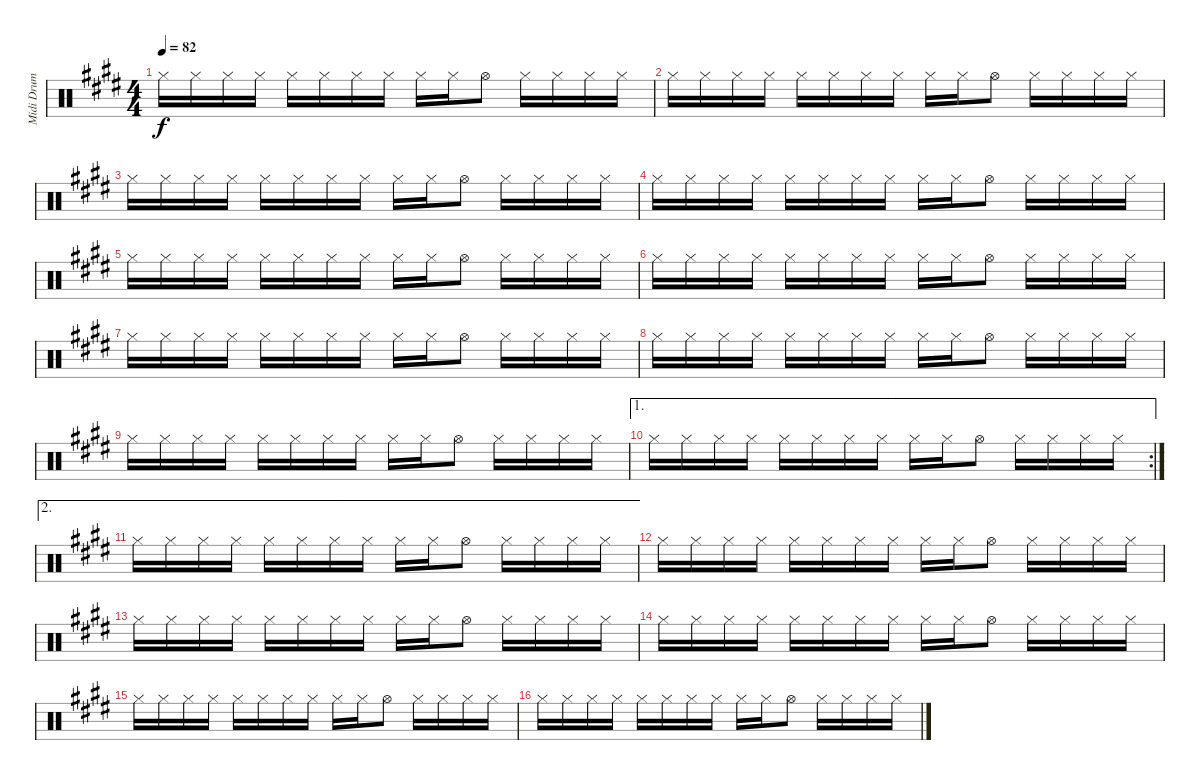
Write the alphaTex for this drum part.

\track ("Midi Drum" "Midi Drum") {instrument percussion}
\staff {score}
\articulation defaults
\ts (4 4)
\tempo 82
\clef neutral
\ks e "Hi-Hat (closed)".16{dy f} "Hi-Hat (closed)".16 "Hi-Hat (closed)".16 "Hi-Hat (closed)".16 "Hi-Hat (closed)".16 "Hi-Hat (closed)".16 "Hi-Hat (closed)".16 "Hi-Hat (closed)".16 "Hi-Hat (closed)".16 "Hi-Hat (closed)".16 "Hi-Hat (open)".8 "Hi-Hat (closed)".16 "Hi-Hat (closed)".16 "Hi-Hat (closed)".16 "Hi-Hat (closed)".16
|
"Hi-Hat (closed)".16 "Hi-Hat (closed)".16 "Hi-Hat (closed)".16 "Hi-Hat (closed)".16 "Hi-Hat (closed)".16 "Hi-Hat (closed)".16 "Hi-Hat (closed)".16 "Hi-Hat (closed)".16 "Hi-Hat (closed)".16 "Hi-Hat (closed)".16 "Hi-Hat (open)".8 "Hi-Hat (closed)".16 "Hi-Hat (closed)".16 "Hi-Hat (closed)".16 "Hi-Hat (closed)".16 |
"Hi-Hat (closed)".16 "Hi-Hat (closed)".16 "Hi-Hat (closed)".16 "Hi-Hat (closed)".16 "Hi-Hat (closed)".16 "Hi-Hat (closed)".16 "Hi-Hat (closed)".16 "Hi-Hat (closed)".16 "Hi-Hat (closed)".16 "Hi-Hat (closed)".16 "Hi-Hat (open)".8 "Hi-Hat (closed)".16 "Hi-Hat (closed)".16 "Hi-Hat (closed)".16 "Hi-Hat (closed)".16 |
"Hi-Hat (closed)".16 "Hi-Hat (closed)".16 "Hi-Hat (closed)".16 "Hi-Hat (closed)".16 "Hi-Hat (closed)".16 "Hi-Hat (closed)".16 "Hi-Hat (closed)".16 "Hi-Hat (closed)".16 "Hi-Hat (closed)".16 "Hi-Hat (closed)".16 "Hi-Hat (open)".8 "Hi-Hat (closed)".16 "Hi-Hat (closed)".16 "Hi-Hat (closed)".16 "Hi-Hat (closed)".16 |
"Hi-Hat (closed)".16 "Hi-Hat (closed)".16 "Hi-Hat (closed)".16 "Hi-Hat (closed)".16 "Hi-Hat (closed)".16 "Hi-Hat (closed)".16 "Hi-Hat (closed)".16 "Hi-Hat (closed)".16 "Hi-Hat (closed)".16 "Hi-Hat (closed)".16 "Hi-Hat (open)".8 "Hi-Hat (closed)".16 "Hi-Hat (closed)".16 "Hi-Hat (closed)".16 "Hi-Hat (closed)".16 |
"Hi-Hat (closed)".16 "Hi-Hat (closed)".16 "Hi-Hat (closed)".16 "Hi-Hat (closed)".16 "Hi-Hat (closed)".16 "Hi-Hat (closed)".16 "Hi-Hat (closed)".16 "Hi-Hat (closed)".16 "Hi-Hat (closed)".16 "Hi-Hat (closed)".16 "Hi-Hat (open)".8 "Hi-Hat (closed)".16 "Hi-Hat (closed)".16 "Hi-Hat (closed)".16 "Hi-Hat (closed)".16 |
"Hi-Hat (closed)".16 "Hi-Hat (closed)".16 "Hi-Hat (closed)".16 "Hi-Hat (closed)".16 "Hi-Hat (closed)".16 "Hi-Hat (closed)".16 "Hi-Hat (closed)".16 "Hi-Hat (closed)".16 "Hi-Hat (closed)".16 "Hi-Hat (closed)".16 "Hi-Hat (open)".8 "Hi-Hat (closed)".16 "Hi-Hat (closed)".16 "Hi-Hat (closed)".16 "Hi-Hat (closed)".16 |
"Hi-Hat (closed)".16 "Hi-Hat (closed)".16 "Hi-Hat (closed)".16 "Hi-Hat (closed)".16 "Hi-Hat (closed)".16 "Hi-Hat (closed)".16 "Hi-Hat (closed)".16 "Hi-Hat (closed)".16 "Hi-Hat (closed)".16 "Hi-Hat (closed)".16 "Hi-Hat (open)".8 "Hi-Hat (closed)".16 "Hi-Hat (closed)".16 "Hi-Hat (closed)".16 "Hi-Hat (closed)".16 |
"Hi-Hat (closed)".16 "Hi-Hat (closed)".16 "Hi-Hat (closed)".16 "Hi-Hat (closed)".16 "Hi-Hat (closed)".16 "Hi-Hat (closed)".16 "Hi-Hat (closed)".16 "Hi-Hat (closed)".16 "Hi-Hat (closed)".16 "Hi-Hat (closed)".16 "Hi-Hat (open)".8 "Hi-Hat (closed)".16 "Hi-Hat (closed)".16 "Hi-Hat (closed)".16 "Hi-Hat (closed)".16 |
\ae 1
\rc 2 "Hi-Hat (closed)".16 "Hi-Hat (closed)".16 "Hi-Hat (closed)".16 "Hi-Hat (closed)".16 "Hi-Hat (closed)".16 "Hi-Hat (closed)".16 "Hi-Hat (closed)".16 "Hi-Hat (closed)".16 "Hi-Hat (closed)".16 "Hi-Hat (closed)".16 "Hi-Hat (open)".8 "Hi-Hat (closed)".16 "Hi-Hat (closed)".16 "Hi-Hat (closed)".16 "Hi-Hat (closed)".16
|
\ae 2 "Hi-Hat (closed)".16 "Hi-Hat (closed)".16 "Hi-Hat (closed)".16 "Hi-Hat (closed)".16 "Hi-Hat (closed)".16 "Hi-Hat (closed)".16 "Hi-Hat (closed)".16 "Hi-Hat (closed)".16 "Hi-Hat (closed)".16 "Hi-Hat (closed)".16 "Hi-Hat (open)".8 "Hi-Hat (closed)".16 "Hi-Hat (closed)".16 "Hi-Hat (closed)".16 "Hi-Hat (closed)".16
|
"Hi-Hat (closed)".16 "Hi-Hat (closed)".16 "Hi-Hat (closed)".16 "Hi-Hat (closed)".16 "Hi-Hat (closed)".16 "Hi-Hat (closed)".16 "Hi-Hat (closed)".16 "Hi-Hat (closed)".16 "Hi-Hat (closed)".16 "Hi-Hat (closed)".16 "Hi-Hat (open)".8 "Hi-Hat (closed)".16 "Hi-Hat (closed)".16 "Hi-Hat (closed)".16 "Hi-Hat (closed)".16 |
"Hi-Hat (closed)".16 "Hi-Hat (closed)".16 "Hi-Hat (closed)".16 "Hi-Hat (closed)".16 "Hi-Hat (closed)".16 "Hi-Hat (closed)".16 "Hi-Hat (closed)".16 "Hi-Hat (closed)".16 "Hi-Hat (closed)".16 "Hi-Hat (closed)".16 "Hi-Hat (open)".8 "Hi-Hat (closed)".16 "Hi-Hat (closed)".16 "Hi-Hat (closed)".16 "Hi-Hat (closed)".16 |
"Hi-Hat (closed)".16 "Hi-Hat (closed)".16 "Hi-Hat (closed)".16 "Hi-Hat (closed)".16 "Hi-Hat (closed)".16 "Hi-Hat (closed)".16 "Hi-Hat (closed)".16 "Hi-Hat (closed)".16 "Hi-Hat (closed)".16 "Hi-Hat (closed)".16 "Hi-Hat (open)".8 "Hi-Hat (closed)".16 "Hi-Hat (closed)".16 "Hi-Hat (closed)".16 "Hi-Hat (closed)".16 |
"Hi-Hat (closed)".16 "Hi-Hat (closed)".16 "Hi-Hat (closed)".16 "Hi-Hat (closed)".16 "Hi-Hat (closed)".16 "Hi-Hat (closed)".16 "Hi-Hat (closed)".16 "Hi-Hat (closed)".16 "Hi-Hat (closed)".16 "Hi-Hat (closed)".16 "Hi-Hat (open)".8 "Hi-Hat (closed)".16 "Hi-Hat (closed)".16 "Hi-Hat (closed)".16 "Hi-Hat (closed)".16 |
"Hi-Hat (closed)".16 "Hi-Hat (closed)".16 "Hi-Hat (closed)".16 "Hi-Hat (closed)".16 "Hi-Hat (closed)".16 "Hi-Hat (closed)".16 "Hi-Hat (closed)".16 "Hi-Hat (closed)".16 "Hi-Hat (closed)".16 "Hi-Hat (closed)".16 "Hi-Hat (open)".8 "Hi-Hat (closed)".16 "Hi-Hat (closed)".16 "Hi-Hat (closed)".16 "Hi-Hat (closed)".16
